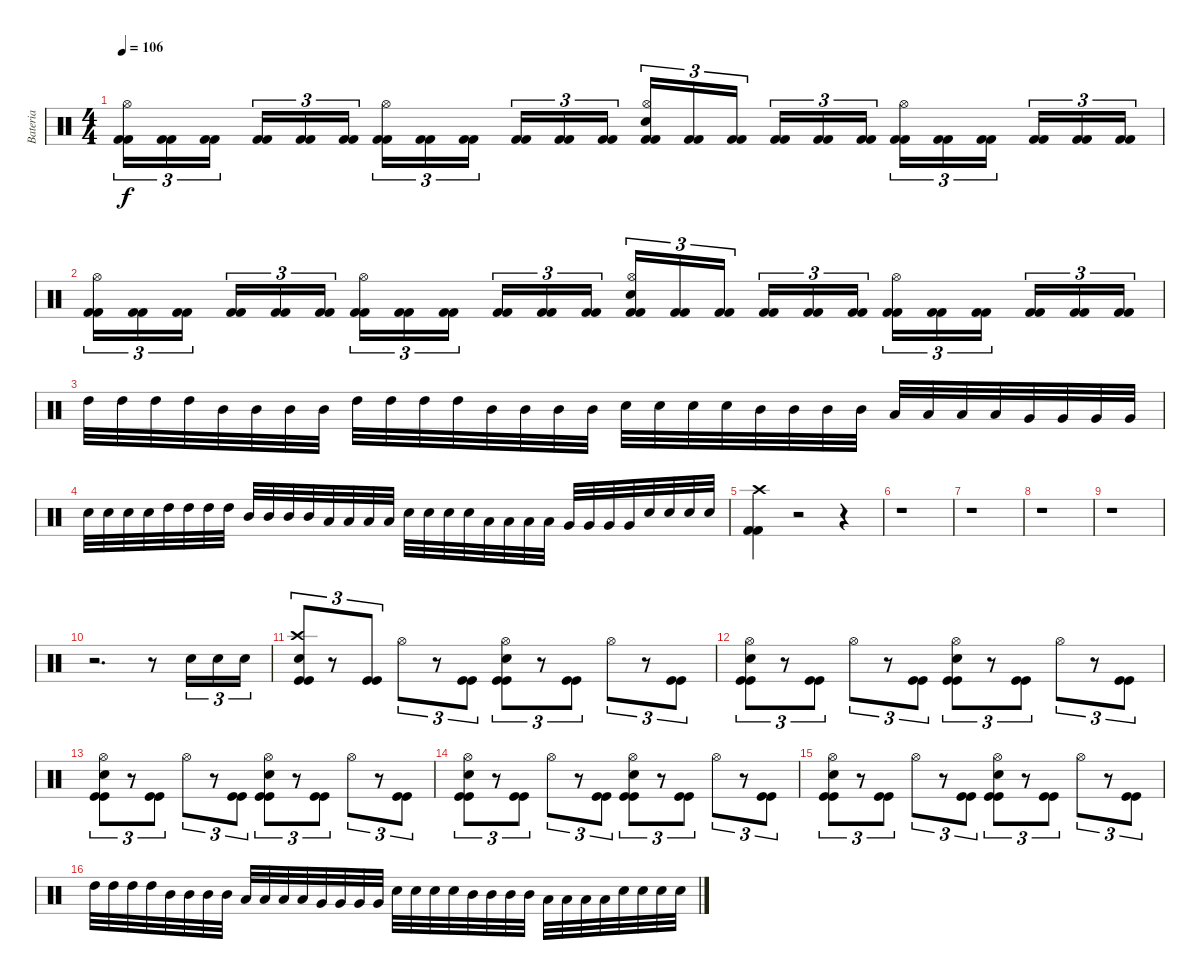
\track ("Bateria" "Bateria") {instrument percussion}
\staff {score}
\articulation defaults
\ts (4 4)
\tempo 106
\clef neutral
\ks c
("Kick (hit) 2" "Kick (hit) 2" "Hi-Hat (open)").16{tu (3 2) dy f} ("Kick (hit) 2" "Kick (hit) 2").16{tu (3 2)} ("Kick (hit) 2" "Kick (hit) 2").16{tu (3 2)} ("Kick (hit) 2" "Kick (hit) 2").16{tu (3 2)} ("Kick (hit) 2" "Kick (hit) 2").16{tu (3 2)} ("Kick (hit) 2" "Kick (hit) 2").16{tu (3 2)} ("Kick (hit) 2" "Kick (hit) 2" "Hi-Hat (open)").16{tu (3 2)} ("Kick (hit) 2" "Kick (hit) 2").16{tu (3 2)} ("Kick (hit) 2" "Kick (hit) 2").16{tu (3 2)} ("Kick (hit) 2" "Kick (hit) 2").16{tu (3 2)} ("Kick (hit) 2" "Kick (hit) 2").16{tu (3 2)} ("Kick (hit) 2" "Kick (hit) 2").16{tu (3 2)} ("Kick (hit) 2" "Kick (hit) 2" "Snare (hit) 2" "Hi-Hat (open)").16{tu (3 2)} ("Kick (hit) 2" "Kick (hit) 2").16{tu (3 2)} ("Kick (hit) 2" "Kick (hit) 2").16{tu (3 2)} ("Kick (hit) 2" "Kick (hit) 2").16{tu (3 2)} ("Kick (hit) 2" "Kick (hit) 2").16{tu (3 2)} ("Kick (hit) 2" "Kick (hit) 2").16{tu (3 2)} ("Kick (hit) 2" "Kick (hit) 2" "Hi-Hat (open)").16{tu (3 2)} ("Kick (hit) 2" "Kick (hit) 2").16{tu (3 2)} ("Kick (hit) 2" "Kick (hit) 2").16{tu (3 2)} ("Kick (hit) 2" "Kick (hit) 2").16{tu (3 2)} ("Kick (hit) 2" "Kick (hit) 2").16{tu (3 2)} ("Kick (hit) 2" "Kick (hit) 2").16{tu (3 2)} |
("Kick (hit) 2" "Kick (hit) 2" "Hi-Hat (open)").16{tu (3 2)} ("Kick (hit) 2" "Kick (hit) 2").16{tu (3 2)} ("Kick (hit) 2" "Kick (hit) 2").16{tu (3 2)} ("Kick (hit) 2" "Kick (hit) 2").16{tu (3 2)} ("Kick (hit) 2" "Kick (hit) 2").16{tu (3 2)} ("Kick (hit) 2" "Kick (hit) 2").16{tu (3 2)} ("Kick (hit) 2" "Kick (hit) 2" "Hi-Hat (open)").16{tu (3 2)} ("Kick (hit) 2" "Kick (hit) 2").16{tu (3 2)} ("Kick (hit) 2" "Kick (hit) 2").16{tu (3 2)} ("Kick (hit) 2" "Kick (hit) 2").16{tu (3 2)} ("Kick (hit) 2" "Kick (hit) 2").16{tu (3 2)} ("Kick (hit) 2" "Kick (hit) 2").16{tu (3 2)} ("Kick (hit) 2" "Kick (hit) 2" "Snare (hit) 2" "Hi-Hat (open)").16{tu (3 2)} ("Kick (hit) 2" "Kick (hit) 2").16{tu (3 2)} ("Kick (hit) 2" "Kick (hit) 2").16{tu (3 2)} ("Kick (hit) 2" "Kick (hit) 2").16{tu (3 2)} ("Kick (hit) 2" "Kick (hit) 2").16{tu (3 2)} ("Kick (hit) 2" "Kick (hit) 2").16{tu (3 2)} ("Kick (hit) 2" "Kick (hit) 2" "Hi-Hat (open)").16{tu (3 2)} ("Kick (hit) 2" "Kick (hit) 2").16{tu (3 2)} ("Kick (hit) 2" "Kick (hit) 2").16{tu (3 2)} ("Kick (hit) 2" "Kick (hit) 2").16{tu (3 2)} ("Kick (hit) 2" "Kick (hit) 2").16{tu (3 2)} ("Kick (hit) 2" "Kick (hit) 2").16{tu (3 2)} |
"High Tom (hit)".32 "High Tom (hit)".32 "High Tom (hit)".32 "High Tom (hit)".32 "Mid Tom (hit)".32 "Mid Tom (hit)".32 "Mid Tom (hit)".32 "Mid Tom (hit)".32 "High Tom (hit)".32 "High Tom (hit)".32 "High Tom (hit)".32 "High Tom (hit)".32 "Mid Tom (hit)".32 "Mid Tom (hit)".32 "Mid Tom (hit)".32 "Mid Tom (hit)".32 "Snare (hit) 2".32 "Snare (hit) 2".32 "Snare (hit) 2".32 "Snare (hit) 2".32 "Mid Tom (hit)".32 "Mid Tom (hit)".32 "Mid Tom (hit)".32 "Mid Tom (hit)".32 "Low Tom (hit)".32 "Low Tom (hit)".32 "Low Tom (hit)".32 "Low Tom (hit)".32 "Very Low Tom (hit)".32 "Very Low Tom (hit)".32 "Very Low Tom (hit)".32 "Very Low Tom (hit)".32 |
"Snare (hit) 2".32 "Snare (hit) 2".32 "Snare (hit) 2".32 "Snare (hit) 2".32 "High Tom (hit)".32 "High Tom (hit)".32 "High Tom (hit)".32 "High Tom (hit)".32 "Mid Tom (hit)".32 "Mid Tom (hit)".32 "Mid Tom (hit)".32 "Mid Tom (hit)".32 "Low Tom (hit)".32 "Low Tom (hit)".32 "Low Tom (hit)".32 "Low Tom (hit)".32 "Snare (hit) 2".32 "Snare (hit) 2".32 "Snare (hit) 2".32 "Snare (hit) 2".32 "Low Tom (hit)".32 "Low Tom (hit)".32 "Low Tom (hit)".32 "Low Tom (hit)".32 "Very Low Tom (hit)".32 "Very Low Tom (hit)".32 "Very Low Tom (hit)".32 "Very Low Tom (hit)".32 "Snare (hit) 2".32 "Snare (hit) 2".32 "Snare (hit) 2".32 "Snare (hit) 2".32 |
("Kick (hit) 2" "Kick (hit) 2" "Crash high (hit)").4 r.2 r.4 |
r.1 |
r.1 |
r.1 |
r.1 |
r.2{d} r.8 "Snare (hit) 2".16{tu (3 2)} "Snare (hit) 2".16{tu (3 2)} "Snare (hit) 2".16{tu (3 2)} |
("Crash high (hit)" "Snare (hit) 2" "Kick (hit)" "Kick (hit)").8{tu (3 2)} r.8{tu (3 2)} ("Kick (hit)" "Kick (hit)").8{tu (3 2)} "Hi-Hat (open)".8{tu (3 2)} r.8{tu (3 2)} ("Kick (hit)" "Kick (hit)").8{tu (3 2)} ("Snare (hit) 2" "Hi-Hat (open)" "Kick (hit)" "Kick (hit)").8{tu (3 2)} r.8{tu (3 2)} ("Kick (hit)" "Kick (hit)").8{tu (3 2)} "Hi-Hat (open)".8{tu (3 2)} r.8{tu (3 2)} ("Kick (hit)" "Kick (hit)").8{tu (3 2)} |
("Hi-Hat (open)" "Snare (hit) 2" "Kick (hit)" "Kick (hit)").8{tu (3 2)} r.8{tu (3 2)} ("Kick (hit)" "Kick (hit)").8{tu (3 2)} "Hi-Hat (open)".8{tu (3 2)} r.8{tu (3 2)} ("Kick (hit)" "Kick (hit)").8{tu (3 2)} ("Snare (hit) 2" "Hi-Hat (open)" "Kick (hit)" "Kick (hit)").8{tu (3 2)} r.8{tu (3 2)} ("Kick (hit)" "Kick (hit)").8{tu (3 2)} "Hi-Hat (open)".8{tu (3 2)} r.8{tu (3 2)} ("Kick (hit)" "Kick (hit)").8{tu (3 2)} |
("Hi-Hat (open)" "Snare (hit) 2" "Kick (hit)" "Kick (hit)").8{tu (3 2)} r.8{tu (3 2)} ("Kick (hit)" "Kick (hit)").8{tu (3 2)} "Hi-Hat (open)".8{tu (3 2)} r.8{tu (3 2)} ("Kick (hit)" "Kick (hit)").8{tu (3 2)} ("Snare (hit) 2" "Hi-Hat (open)" "Kick (hit)" "Kick (hit)").8{tu (3 2)} r.8{tu (3 2)} ("Kick (hit)" "Kick (hit)").8{tu (3 2)} "Hi-Hat (open)".8{tu (3 2)} r.8{tu (3 2)} ("Kick (hit)" "Kick (hit)").8{tu (3 2)} |
("Hi-Hat (open)" "Snare (hit) 2" "Kick (hit)" "Kick (hit)").8{tu (3 2)} r.8{tu (3 2)} ("Kick (hit)" "Kick (hit)").8{tu (3 2)} "Hi-Hat (open)".8{tu (3 2)} r.8{tu (3 2)} ("Kick (hit)" "Kick (hit)").8{tu (3 2)} ("Snare (hit) 2" "Hi-Hat (open)" "Kick (hit)" "Kick (hit)").8{tu (3 2)} r.8{tu (3 2)} ("Kick (hit)" "Kick (hit)").8{tu (3 2)} "Hi-Hat (open)".8{tu (3 2)} r.8{tu (3 2)} ("Kick (hit)" "Kick (hit)").8{tu (3 2)} |
("Hi-Hat (open)" "Snare (hit) 2" "Kick (hit)" "Kick (hit)").8{tu (3 2)} r.8{tu (3 2)} ("Kick (hit)" "Kick (hit)").8{tu (3 2)} "Hi-Hat (open)".8{tu (3 2)} r.8{tu (3 2)} ("Kick (hit)" "Kick (hit)").8{tu (3 2)} ("Snare (hit) 2" "Hi-Hat (open)" "Kick (hit)" "Kick (hit)").8{tu (3 2)} r.8{tu (3 2)} ("Kick (hit)" "Kick (hit)").8{tu (3 2)} "Hi-Hat (open)".8{tu (3 2)} r.8{tu (3 2)} ("Kick (hit)" "Kick (hit)").8{tu (3 2)} |
"High Tom (hit)".32 "High Tom (hit)".32 "High Tom (hit)".32 "High Tom (hit)".32 "Mid Tom (hit)".32 "Mid Tom (hit)".32 "Mid Tom (hit)".32 "Mid Tom (hit)".32 "Low Tom (hit)".32 "Low Tom (hit)".32 "Low Tom (hit)".32 "Low Tom (hit)".32 "Very Low Tom (hit)".32 "Very Low Tom (hit)".32 "Very Low Tom (hit)".32 "Very Low Tom (hit)".32 "Snare (hit) 2".32 "Snare (hit) 2".32 "Snare (hit) 2".32 "Snare (hit) 2".32 "Mid Tom (hit)".32 "Mid Tom (hit)".32 "Mid Tom (hit)".32 "Mid Tom (hit)".32 "Low Tom (hit)".32 "Low Tom (hit)".32 "Low Tom (hit)".32 "Low Tom (hit)".32 "Snare (hit) 2".32 "Snare (hit) 2".32 "Snare (hit) 2".32 "Snare (hit) 2".32
